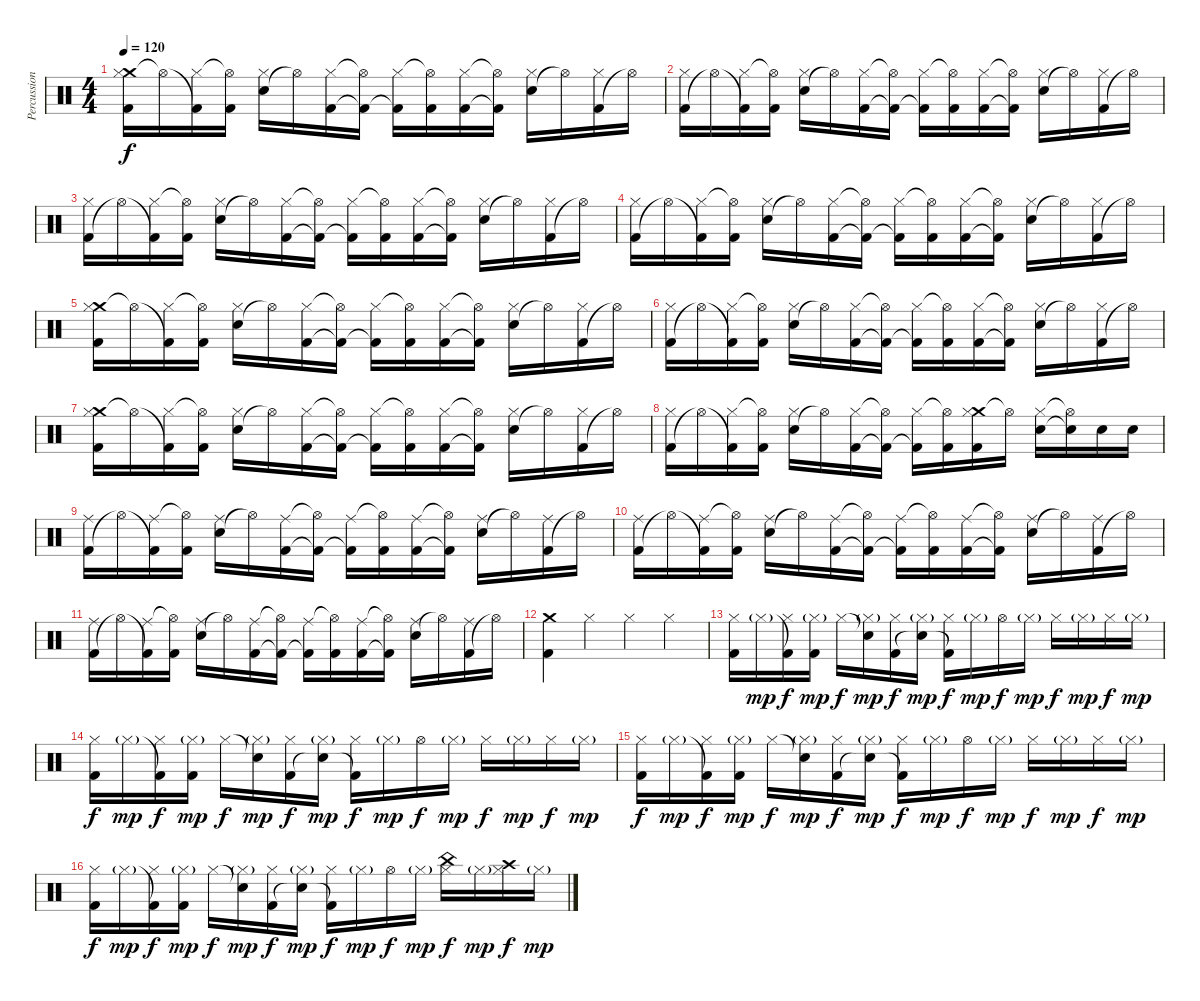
\track ("Percussions" "Percussion") {instrument percussion}
\staff {score}
\articulation defaults
\ts (4 4)
\tempo 120
\clef neutral
\ks c
("Crash medium (hit)" "Kick (hit) 2" "Hi-Hat (closed)").16{dy f} "Hi-Hat (open)"{t}.16 ("Kick (hit) 2"{t} "Hi-Hat (closed)").16 ("Kick (hit) 2" "Hi-Hat (open)"{t}).16 ("Electric Snare (hit)" "Hi-Hat (closed)").16 "Hi-Hat (open)"{t}.16 ("Kick (hit) 2" "Hi-Hat (closed)").16 ("Kick (hit) 2"{t} "Hi-Hat (open)"{t}).16 ("Kick (hit) 2"{t} "Hi-Hat (closed)").16 ("Kick (hit) 2" "Hi-Hat (open)"{t}).16 ("Kick (hit) 2" "Hi-Hat (closed)").16 ("Kick (hit) 2"{t} "Hi-Hat (open)"{t}).16 ("Electric Snare (hit)" "Hi-Hat (closed)").16 "Hi-Hat (open)"{t}.16 ("Kick (hit) 2" "Hi-Hat (closed)").16 "Hi-Hat (open)"{t}.16 |
("Kick (hit) 2" "Hi-Hat (closed)").16 "Hi-Hat (open)"{t}.16 ("Kick (hit) 2"{t} "Hi-Hat (closed)").16 ("Kick (hit) 2" "Hi-Hat (open)"{t}).16 ("Electric Snare (hit)" "Hi-Hat (closed)").16 "Hi-Hat (open)"{t}.16 ("Kick (hit) 2" "Hi-Hat (closed)").16 ("Kick (hit) 2"{t} "Hi-Hat (open)"{t}).16 ("Kick (hit) 2"{t} "Hi-Hat (closed)").16 ("Kick (hit) 2" "Hi-Hat (open)"{t}).16 ("Kick (hit) 2" "Hi-Hat (closed)").16 ("Kick (hit) 2"{t} "Hi-Hat (open)"{t}).16 ("Electric Snare (hit)" "Hi-Hat (closed)").16 "Hi-Hat (open)"{t}.16 ("Kick (hit) 2" "Hi-Hat (closed)").16 "Hi-Hat (open)"{t}.16 |
("Kick (hit) 2" "Hi-Hat (closed)").16 "Hi-Hat (open)"{t}.16 ("Kick (hit) 2"{t} "Hi-Hat (closed)").16 ("Kick (hit) 2" "Hi-Hat (open)"{t}).16 ("Electric Snare (hit)" "Hi-Hat (closed)").16 "Hi-Hat (open)"{t}.16 ("Kick (hit) 2" "Hi-Hat (closed)").16 ("Kick (hit) 2"{t} "Hi-Hat (open)"{t}).16 ("Kick (hit) 2"{t} "Hi-Hat (closed)").16 ("Kick (hit) 2" "Hi-Hat (open)"{t}).16 ("Kick (hit) 2" "Hi-Hat (closed)").16 ("Kick (hit) 2"{t} "Hi-Hat (open)"{t}).16 ("Electric Snare (hit)" "Hi-Hat (closed)").16 "Hi-Hat (open)"{t}.16 ("Kick (hit) 2" "Hi-Hat (closed)").16 "Hi-Hat (open)"{t}.16 |
("Kick (hit) 2" "Hi-Hat (closed)").16 "Hi-Hat (open)"{t}.16 ("Kick (hit) 2"{t} "Hi-Hat (closed)").16 ("Kick (hit) 2" "Hi-Hat (open)"{t}).16 ("Electric Snare (hit)" "Hi-Hat (closed)").16 "Hi-Hat (open)"{t}.16 ("Kick (hit) 2" "Hi-Hat (closed)").16 ("Kick (hit) 2"{t} "Hi-Hat (open)"{t}).16 ("Kick (hit) 2"{t} "Hi-Hat (closed)").16 ("Kick (hit) 2" "Hi-Hat (open)"{t}).16 ("Kick (hit) 2" "Hi-Hat (closed)").16 ("Kick (hit) 2"{t} "Hi-Hat (open)"{t}).16 ("Electric Snare (hit)" "Hi-Hat (closed)").16 "Hi-Hat (open)"{t}.16 ("Kick (hit) 2" "Hi-Hat (closed)").16 "Hi-Hat (open)"{t}.16 |
("Crash medium (hit)" "Kick (hit) 2" "Hi-Hat (closed)").16 "Hi-Hat (open)"{t}.16 ("Kick (hit) 2"{t} "Hi-Hat (closed)").16 ("Kick (hit) 2" "Hi-Hat (open)"{t}).16 ("Electric Snare (hit)" "Hi-Hat (closed)").16 "Hi-Hat (open)"{t}.16 ("Kick (hit) 2" "Hi-Hat (closed)").16 ("Kick (hit) 2"{t} "Hi-Hat (open)"{t}).16 ("Kick (hit) 2"{t} "Hi-Hat (closed)").16 ("Kick (hit) 2" "Hi-Hat (open)"{t}).16 ("Kick (hit) 2" "Hi-Hat (closed)").16 ("Kick (hit) 2"{t} "Hi-Hat (open)"{t}).16 ("Electric Snare (hit)" "Hi-Hat (closed)").16 "Hi-Hat (open)"{t}.16 ("Kick (hit) 2" "Hi-Hat (closed)").16 "Hi-Hat (open)"{t}.16 |
("Kick (hit) 2" "Hi-Hat (closed)").16 "Hi-Hat (open)"{t}.16 ("Kick (hit) 2"{t} "Hi-Hat (closed)").16 ("Kick (hit) 2" "Hi-Hat (open)"{t}).16 ("Electric Snare (hit)" "Hi-Hat (closed)").16 "Hi-Hat (open)"{t}.16 ("Kick (hit) 2" "Hi-Hat (closed)").16 ("Kick (hit) 2"{t} "Hi-Hat (open)"{t}).16 ("Kick (hit) 2"{t} "Hi-Hat (closed)").16 ("Kick (hit) 2" "Hi-Hat (open)"{t}).16 ("Kick (hit) 2" "Hi-Hat (closed)").16 ("Kick (hit) 2"{t} "Hi-Hat (open)"{t}).16 ("Electric Snare (hit)" "Hi-Hat (closed)").16 "Hi-Hat (open)"{t}.16 ("Kick (hit) 2" "Hi-Hat (closed)").16 "Hi-Hat (open)"{t}.16 |
("Crash medium (hit)" "Kick (hit) 2" "Hi-Hat (closed)").16 "Hi-Hat (open)"{t}.16 ("Kick (hit) 2"{t} "Hi-Hat (closed)").16 ("Kick (hit) 2" "Hi-Hat (open)"{t}).16 ("Electric Snare (hit)" "Hi-Hat (closed)").16 "Hi-Hat (open)"{t}.16 ("Kick (hit) 2" "Hi-Hat (closed)").16 ("Kick (hit) 2"{t} "Hi-Hat (open)"{t}).16 ("Kick (hit) 2"{t} "Hi-Hat (closed)").16 ("Kick (hit) 2" "Hi-Hat (open)"{t}).16 ("Kick (hit) 2" "Hi-Hat (closed)").16 ("Kick (hit) 2"{t} "Hi-Hat (open)"{t}).16 ("Electric Snare (hit)" "Hi-Hat (closed)").16 "Hi-Hat (open)"{t}.16 ("Kick (hit) 2" "Hi-Hat (closed)").16 "Hi-Hat (open)"{t}.16 |
("Kick (hit) 2" "Hi-Hat (closed)").16 "Hi-Hat (open)"{t}.16 ("Kick (hit) 2"{t} "Hi-Hat (closed)").16 ("Kick (hit) 2" "Hi-Hat (open)"{t}).16 ("Electric Snare (hit)" "Hi-Hat (closed)").16 "Hi-Hat (open)"{t}.16 ("Kick (hit) 2" "Hi-Hat (closed)").16 ("Kick (hit) 2"{t} "Hi-Hat (open)"{t}).16 ("Kick (hit) 2"{t} "Hi-Hat (closed)").16 ("Kick (hit) 2" "Hi-Hat (open)"{t}).16 ("Crash medium (hit)" "Kick (hit) 2" "Hi-Hat (closed)").16 "Hi-Hat (open)"{t}.16 ("Electric Snare (hit)" "Hi-Hat (closed)").16 ("Electric Snare (hit)"{t} "Hi-Hat (open)"{t}).16 "Electric Snare (hit)".16 "Electric Snare (hit)".16 |
("Kick (hit) 2" "Ride (middle)").16 "Hi-Hat (open)"{t}.16 ("Kick (hit) 2"{t} "Ride (middle)").16 ("Kick (hit) 2" "Hi-Hat (open)"{t}).16 ("Electric Snare (hit)" "Ride (middle)").16 "Hi-Hat (open)"{t}.16 ("Kick (hit) 2" "Ride (middle)").16 ("Kick (hit) 2"{t} "Hi-Hat (open)"{t}).16 ("Kick (hit) 2"{t} "Ride (middle)").16 ("Kick (hit) 2" "Hi-Hat (open)"{t}).16 ("Kick (hit) 2" "Ride (middle)").16 ("Kick (hit) 2"{t} "Hi-Hat (open)"{t}).16 ("Electric Snare (hit)" "Ride (middle)").16 "Hi-Hat (open)"{t}.16 ("Kick (hit) 2" "Ride (middle)").16 "Hi-Hat (open)"{t}.16 |
("Kick (hit) 2" "Ride (middle)").16 "Hi-Hat (open)"{t}.16 ("Kick (hit) 2"{t} "Ride (middle)").16 ("Kick (hit) 2" "Hi-Hat (open)"{t}).16 ("Electric Snare (hit)" "Ride (middle)").16 "Hi-Hat (open)"{t}.16 ("Kick (hit) 2" "Ride (middle)").16 ("Kick (hit) 2"{t} "Hi-Hat (open)"{t}).16 ("Kick (hit) 2"{t} "Ride (middle)").16 ("Kick (hit) 2" "Hi-Hat (open)"{t}).16 ("Kick (hit) 2" "Ride (middle)").16 ("Kick (hit) 2"{t} "Hi-Hat (open)"{t}).16 ("Electric Snare (hit)" "Ride (middle)").16 "Hi-Hat (open)"{t}.16 ("Kick (hit) 2" "Ride (middle)").16 "Hi-Hat (open)"{t}.16 |
("Kick (hit) 2" "Ride (middle)").16 "Hi-Hat (open)"{t}.16 ("Kick (hit) 2"{t} "Ride (middle)").16 ("Kick (hit) 2" "Hi-Hat (open)"{t}).16 ("Electric Snare (hit)" "Ride (middle)").16 "Hi-Hat (open)"{t}.16 ("Kick (hit) 2" "Ride (middle)").16 ("Kick (hit) 2"{t} "Hi-Hat (open)"{t}).16 ("Kick (hit) 2"{t} "Ride (middle)").16 ("Kick (hit) 2" "Hi-Hat (open)"{t}).16 ("Kick (hit) 2" "Ride (middle)").16 ("Kick (hit) 2"{t} "Hi-Hat (open)"{t}).16 ("Electric Snare (hit)" "Ride (middle)").16 "Hi-Hat (open)"{t}.16 ("Kick (hit) 2" "Ride (middle)").16 "Hi-Hat (open)"{t}.16 |
("Crash medium (hit)" "Kick (hit) 2").4 "Hi-Hat (closed)".4 "Hi-Hat (closed)".4 "Hi-Hat (closed)".4 |
("Kick (hit) 2" "Hi-Hat (closed)").16 "Hi-Hat (closed)"{g}.16{dy mp} ("Kick (hit) 2"{t} "Hi-Hat (closed)").16{dy f} ("Kick (hit) 2" "Hi-Hat (closed)"{g}).16{dy mp} "Hi-Hat (closed)".16{dy f} ("Snare (hit)"{t} "Hi-Hat (closed)"{g}).16{dy mp} ("Kick (hit) 2" "Hi-Hat (closed)").16{dy f} ("Snare (hit)"{t} "Hi-Hat (closed)"{g}).16{dy mp} ("Kick (hit) 2"{t} "Hi-Hat (closed)").16{dy f} "Hi-Hat (closed)"{g}.16{dy mp} "Hi-Hat (open)".16{dy f} "Hi-Hat (closed)"{g}.16{dy mp} "Hi-Hat (closed)".16{dy f} "Hi-Hat (closed)"{g}.16{dy mp} "Hi-Hat (closed)".16{dy f} "Hi-Hat (closed)"{g}.16{dy mp} |
("Kick (hit) 2" "Hi-Hat (closed)").16{dy f} "Hi-Hat (closed)"{g}.16{dy mp} ("Kick (hit) 2"{t} "Hi-Hat (closed)").16{dy f} ("Kick (hit) 2" "Hi-Hat (closed)"{g}).16{dy mp} "Hi-Hat (closed)".16{dy f} ("Snare (hit)"{t} "Hi-Hat (closed)"{g}).16{dy mp} ("Kick (hit) 2" "Hi-Hat (closed)").16{dy f} ("Snare (hit)"{t} "Hi-Hat (closed)"{g}).16{dy mp} ("Kick (hit) 2"{t} "Hi-Hat (closed)").16{dy f} "Hi-Hat (closed)"{g}.16{dy mp} "Hi-Hat (open)".16{dy f} "Hi-Hat (closed)"{g}.16{dy mp} "Hi-Hat (closed)".16{dy f} "Hi-Hat (closed)"{g}.16{dy mp} "Hi-Hat (closed)".16{dy f} "Hi-Hat (closed)"{g}.16{dy mp} |
("Kick (hit) 2" "Hi-Hat (closed)").16{dy f} "Hi-Hat (closed)"{g}.16{dy mp} ("Kick (hit) 2"{t} "Hi-Hat (closed)").16{dy f} ("Kick (hit) 2" "Hi-Hat (closed)"{g}).16{dy mp} "Hi-Hat (closed)".16{dy f} ("Snare (hit)"{t} "Hi-Hat (closed)"{g}).16{dy mp} ("Kick (hit) 2" "Hi-Hat (closed)").16{dy f} ("Snare (hit)"{t} "Hi-Hat (closed)"{g}).16{dy mp} ("Kick (hit) 2"{t} "Hi-Hat (closed)").16{dy f} "Hi-Hat (closed)"{g}.16{dy mp} "Hi-Hat (open)".16{dy f} "Hi-Hat (closed)"{g}.16{dy mp} "Hi-Hat (closed)".16{dy f} "Hi-Hat (closed)"{g}.16{dy mp} "Hi-Hat (closed)".16{dy f} "Hi-Hat (closed)"{g}.16{dy mp} |
("Kick (hit) 2" "Hi-Hat (closed)").16{dy f} "Hi-Hat (closed)"{g}.16{dy mp} ("Kick (hit) 2"{t} "Hi-Hat (closed)").16{dy f} ("Kick (hit) 2" "Hi-Hat (closed)"{g}).16{dy mp} "Hi-Hat (closed)".16{dy f} ("Snare (hit)"{t} "Hi-Hat (closed)"{g}).16{dy mp} ("Kick (hit) 2" "Hi-Hat (closed)").16{dy f} ("Snare (hit)"{t} "Hi-Hat (closed)"{g}).16{dy mp} ("Kick (hit) 2"{t} "Hi-Hat (closed)").16{dy f} "Hi-Hat (closed)"{g}.16{dy mp} "Hi-Hat (open)".16{dy f} "Hi-Hat (closed)"{g}.16{dy mp} ("China (hit)" "Hi-Hat (closed)").16{dy f} "Hi-Hat (closed)"{g}.16{dy mp} ("Crash high (hit)" "Hi-Hat (closed)").16{dy f} "Hi-Hat (closed)"{g}.16{dy mp}
